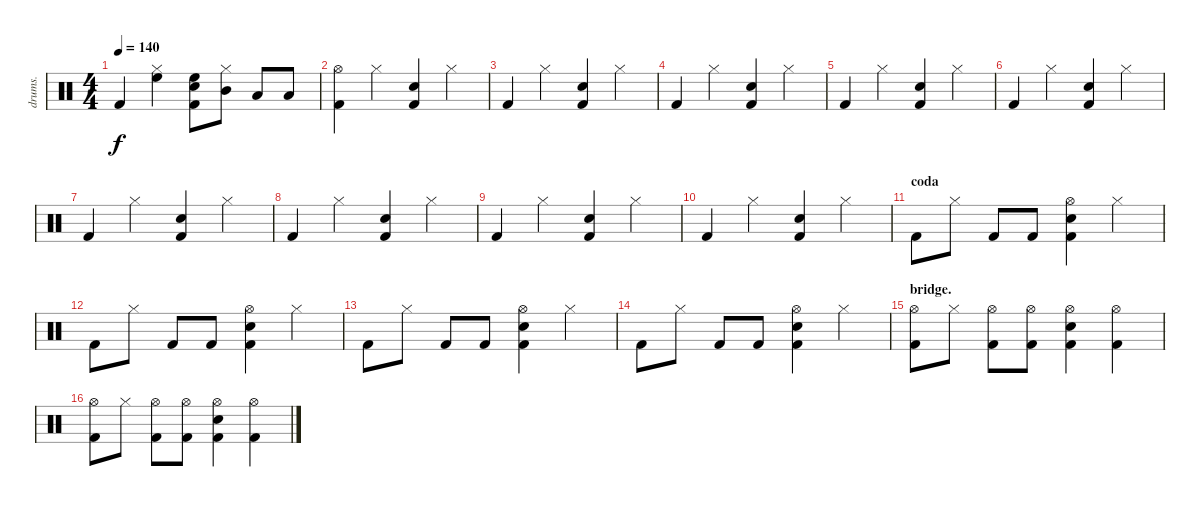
\track ("drums." "drums.") {instrument percussion}
\staff {score}
\articulation defaults
\ts (4 4)
\tempo 140
\clef neutral
\ks c "Kick (hit) 2".4{dy f}
("High Floor Tom (hit)" "Hi-Hat (closed)").4 ("High Floor Tom (hit)" "Electric Snare (hit)" "Kick (hit) 2").8 ("Mid Tom (hit)" "Hi-Hat (closed)").8 "Low Tom (hit)".8 "Low Floor Tom (hit)".8 |
("Hi-Hat (open)" "Kick (hit) 2").4 "Hi-Hat (closed)".4 ("Electric Snare (hit)" "Kick (hit) 2").4 "Hi-Hat (closed)".4 |
"Kick (hit) 2".4 "Hi-Hat (closed)".4 ("Electric Snare (hit)" "Kick (hit) 2").4 "Hi-Hat (closed)".4 |
"Kick (hit) 2".4 "Hi-Hat (closed)".4 ("Electric Snare (hit)" "Kick (hit) 2").4 "Hi-Hat (closed)".4 |
"Kick (hit) 2".4 "Hi-Hat (closed)".4 ("Electric Snare (hit)" "Kick (hit) 2").4 "Hi-Hat (closed)".4 |
"Kick (hit) 2".4 "Hi-Hat (closed)".4 ("Electric Snare (hit)" "Kick (hit) 2").4 "Hi-Hat (closed)".4 |
"Kick (hit) 2".4 "Hi-Hat (closed)".4 ("Electric Snare (hit)" "Kick (hit) 2").4 "Hi-Hat (closed)".4 |
"Kick (hit) 2".4 "Hi-Hat (closed)".4 ("Electric Snare (hit)" "Kick (hit) 2").4 "Hi-Hat (closed)".4 |
"Kick (hit) 2".4 "Hi-Hat (closed)".4 ("Electric Snare (hit)" "Kick (hit) 2").4 "Hi-Hat (closed)".4 |
"Kick (hit) 2".4 "Hi-Hat (closed)".4 ("Electric Snare (hit)" "Kick (hit) 2").4 "Hi-Hat (closed)".4 |
\section ("" "coda")
"Kick (hit) 2".8 "Hi-Hat (closed)".8 "Kick (hit) 2".8 "Kick (hit) 2".8 ("Hi-Hat (open)" "Electric Snare (hit)" "Kick (hit) 2").4 "Hi-Hat (closed)".4 |
"Kick (hit) 2".8 "Hi-Hat (closed)".8 "Kick (hit) 2".8 "Kick (hit) 2".8 ("Hi-Hat (open)" "Electric Snare (hit)" "Kick (hit) 2").4 "Hi-Hat (closed)".4 |
"Kick (hit) 2".8 "Hi-Hat (closed)".8 "Kick (hit) 2".8 "Kick (hit) 2".8 ("Hi-Hat (open)" "Electric Snare (hit)" "Kick (hit) 2").4 "Hi-Hat (closed)".4 |
"Kick (hit) 2".8 "Hi-Hat (closed)".8 "Kick (hit) 2".8 "Kick (hit) 2".8 ("Hi-Hat (open)" "Electric Snare (hit)" "Kick (hit) 2").4 "Hi-Hat (closed)".4 |
\section ("" "bridge.")
("Hi-Hat (open)" "Kick (hit) 2").8 "Hi-Hat (closed)".8 ("Hi-Hat (open)" "Kick (hit) 2").8 ("Hi-Hat (open)" "Kick (hit) 2").8 ("Hi-Hat (open)" "Electric Snare (hit)" "Kick (hit) 2").4 ("Hi-Hat (open)" "Kick (hit) 2").4 |
("Hi-Hat (open)" "Kick (hit) 2").8 "Hi-Hat (closed)".8 ("Hi-Hat (open)" "Kick (hit) 2").8 ("Hi-Hat (open)" "Kick (hit) 2").8 ("Hi-Hat (open)" "Electric Snare (hit)" "Kick (hit) 2").4 ("Hi-Hat (open)" "Kick (hit) 2").4
